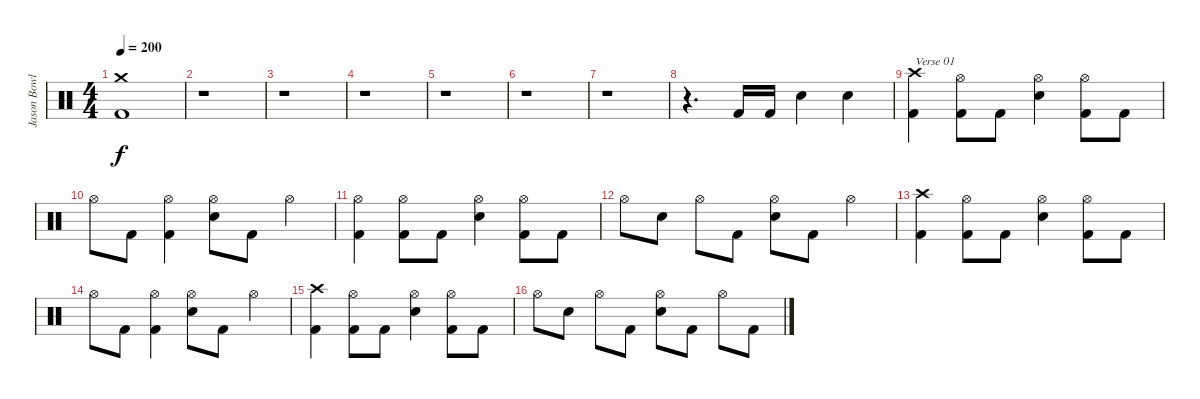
\track ("Jason Bowld" "Jason Bowl") {instrument percussion}
\staff {score}
\articulation defaults
\ts (4 4)
\tempo 200
\clef neutral
\ks c
("Crash medium (hit)" "Kick (hit) 2").1{dy f} |
r.1 |
r.1 |
r.1 |
r.1 |
r.1 |
r.1 |
r.4{d} "Kick (hit) 2".16 "Kick (hit) 2".16 "Snare (hit) 2".4 "Snare (hit) 2".4 |
("Crash high (hit)" "Kick (hit) 2").4{txt "Verse 01"} ("Hi-Hat (open)" "Kick (hit) 2").8 "Kick (hit) 2".8 ("Hi-Hat (open)" "Snare (hit) 2").4 ("Hi-Hat (open)" "Kick (hit) 2").8 "Kick (hit) 2".8 |
"Hi-Hat (open)".8 "Kick (hit) 2".8 ("Hi-Hat (open)" "Kick (hit) 2").4 ("Hi-Hat (open)" "Snare (hit) 2").8 "Kick (hit) 2".8 "Hi-Hat (open)".4 |
("Hi-Hat (open)" "Kick (hit) 2").4 ("Hi-Hat (open)" "Kick (hit) 2").8 "Kick (hit) 2".8 ("Hi-Hat (open)" "Snare (hit) 2").4 ("Hi-Hat (open)" "Kick (hit) 2").8 "Kick (hit) 2".8 |
"Hi-Hat (open)".8 "Snare (hit) 2".8 "Hi-Hat (open)".8 "Kick (hit) 2".8 ("Hi-Hat (open)" "Snare (hit) 2").8 "Kick (hit) 2".8 "Hi-Hat (open)".4 |
("Crash high (hit)" "Kick (hit) 2").4 ("Hi-Hat (open)" "Kick (hit) 2").8 "Kick (hit) 2".8 ("Hi-Hat (open)" "Snare (hit) 2").4 ("Hi-Hat (open)" "Kick (hit) 2").8 "Kick (hit) 2".8 |
"Hi-Hat (open)".8 "Kick (hit) 2".8 ("Hi-Hat (open)" "Kick (hit) 2").4 ("Hi-Hat (open)" "Snare (hit) 2").8 "Kick (hit) 2".8 "Hi-Hat (open)".4 |
("Crash high (hit)" "Kick (hit) 2").4 ("Hi-Hat (open)" "Kick (hit) 2").8 "Kick (hit) 2".8 ("Hi-Hat (open)" "Snare (hit) 2").4 ("Hi-Hat (open)" "Kick (hit) 2").8 "Kick (hit) 2".8 |
"Hi-Hat (open)".8 "Snare (hit) 2".8 "Hi-Hat (open)".8 "Kick (hit) 2".8 ("Hi-Hat (open)" "Snare (hit) 2").8 "Kick (hit) 2".8 "Hi-Hat (open)".8 "Kick (hit) 2".8
